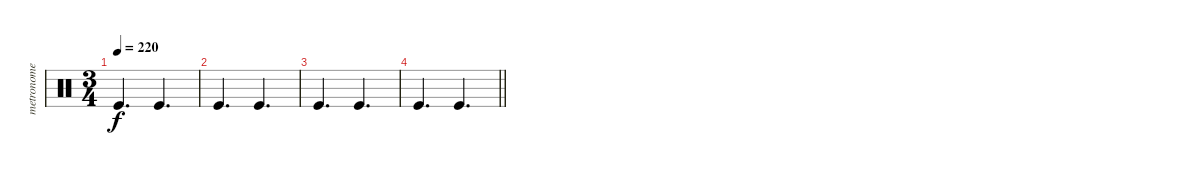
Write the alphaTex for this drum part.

\track ("metronome" "metronome") {instrument percussion}
\staff {score}
\articulation defaults
\ts (3 4)
\tempo 220
\clef neutral
\ks c "Kick (hit)".4{d dy f} "Kick (hit)".4{d}
|
"Kick (hit)".4{d} "Kick (hit)".4{d} |
"Kick (hit)".4{d} "Kick (hit)".4{d} |
\barLineRight lightlight "Kick (hit)".4{d} "Kick (hit)".4{d}
